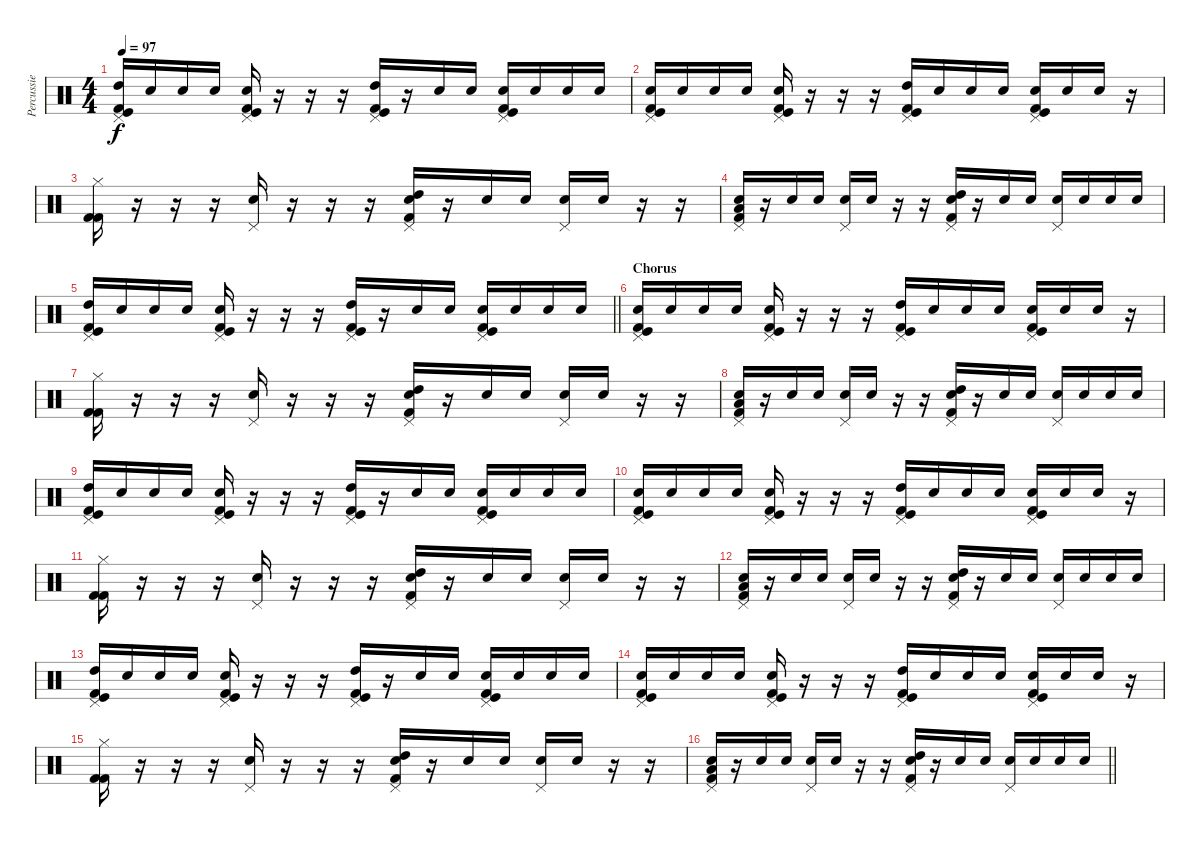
\track ("Percussie" "Percussie") {instrument percussion}
\staff {score}
\articulation defaults
\ts (4 4)
\tempo 97
\clef neutral
\ks c
("Pedal Hi-Hat (hit)" "High Tom (hit)" "Kick (hit)" "Kick (hit) 2").16{dy f} "Hand Clap (hit)".16 "Hand Clap (hit)".16 "Hand Clap (hit)".16 ("Pedal Hi-Hat (hit)" "Electric Snare (hit)" "Kick (hit)" "Kick (hit) 2").16 r.16 r.16 r.16 ("Pedal Hi-Hat (hit)" "High Tom (hit)" "Kick (hit)" "Kick (hit) 2").16 r.16 "Hand Clap (hit)".16 "Hand Clap (hit)".16 ("Pedal Hi-Hat (hit)" "Electric Snare (hit)" "Kick (hit)" "Kick (hit) 2").16 "Hand Clap (hit)".16 "Hand Clap (hit)".16 "Hand Clap (hit)".16 |
("Pedal Hi-Hat (hit)" "Electric Snare (hit)" "Kick (hit)" "Kick (hit) 2").16 "Hand Clap (hit)".16 "Hand Clap (hit)".16 "Hand Clap (hit)".16 ("Pedal Hi-Hat (hit)" "Electric Snare (hit)" "Kick (hit)" "Kick (hit) 2").16 r.16 r.16 r.16 ("Pedal Hi-Hat (hit)" "High Tom (hit)" "Kick (hit)" "Kick (hit) 2").16 "Hand Clap (hit)".16 "Hand Clap (hit)".16 "Hand Clap (hit)".16 ("Pedal Hi-Hat (hit)" "Electric Snare (hit)" "Kick (hit)" "Kick (hit) 2").16 "Hand Clap (hit)".16 "Electric Snare (hit)".16 r.16 |
("Hi-Hat (closed)" "Kick (hit) 2" "Kick (hit) 2").16 r.16 r.16 r.16 ("Pedal Hi-Hat (hit)" "Hand Clap (hit)").16 r.16 r.16 r.16 ("Pedal Hi-Hat (hit)" "Electric Snare (hit)" "High Tom (hit)" "Kick (hit) 2").16 r.16 "Hand Clap (hit)".16 "Hand Clap (hit)".16 ("Pedal Hi-Hat (hit)" "Hand Clap (hit)").16 "Hand Clap (hit)".16 r.16 r.16 |
("Pedal Hi-Hat (hit)" "Electric Snare (hit)" "Low Tom (hit)" "Kick (hit) 2").16 r.16 "Hand Clap (hit)".16 "Hand Clap (hit)".16 ("Pedal Hi-Hat (hit)" "Hand Clap (hit)").16 "Hand Clap (hit)".16 r.16 r.16 ("Pedal Hi-Hat (hit)" "Electric Snare (hit)" "High Tom (hit)" "Kick (hit) 2").16 r.16 "Hand Clap (hit)".16 "Hand Clap (hit)".16 ("Pedal Hi-Hat (hit)" "Hand Clap (hit)").16 "Hand Clap (hit)".16 "Hand Clap (hit)".16 "Hand Clap (hit)".16 |
\barLineRight lightlight
("Pedal Hi-Hat (hit)" "High Tom (hit)" "Kick (hit)" "Kick (hit) 2").16 "Hand Clap (hit)".16 "Hand Clap (hit)".16 "Hand Clap (hit)".16 ("Pedal Hi-Hat (hit)" "Electric Snare (hit)" "Kick (hit)" "Kick (hit) 2").16 r.16 r.16 r.16 ("Pedal Hi-Hat (hit)" "High Tom (hit)" "Kick (hit)" "Kick (hit) 2").16 r.16 "Hand Clap (hit)".16 "Hand Clap (hit)".16 ("Pedal Hi-Hat (hit)" "Electric Snare (hit)" "Kick (hit)" "Kick (hit) 2").16 "Hand Clap (hit)".16 "Hand Clap (hit)".16 "Hand Clap (hit)".16 |
\section ("" "Chorus")
("Pedal Hi-Hat (hit)" "Electric Snare (hit)" "Kick (hit)" "Kick (hit) 2").16 "Hand Clap (hit)".16 "Hand Clap (hit)".16 "Hand Clap (hit)".16 ("Pedal Hi-Hat (hit)" "Electric Snare (hit)" "Kick (hit)" "Kick (hit) 2").16 r.16 r.16 r.16 ("Pedal Hi-Hat (hit)" "High Tom (hit)" "Kick (hit)" "Kick (hit) 2").16 "Hand Clap (hit)".16 "Hand Clap (hit)".16 "Hand Clap (hit)".16 ("Pedal Hi-Hat (hit)" "Electric Snare (hit)" "Kick (hit)" "Kick (hit) 2").16 "Hand Clap (hit)".16 "Electric Snare (hit)".16 r.16 |
("Hi-Hat (closed)" "Kick (hit) 2" "Kick (hit) 2").16 r.16 r.16 r.16 ("Pedal Hi-Hat (hit)" "Hand Clap (hit)").16 r.16 r.16 r.16 ("Pedal Hi-Hat (hit)" "Electric Snare (hit)" "High Tom (hit)" "Kick (hit) 2").16 r.16 "Hand Clap (hit)".16 "Hand Clap (hit)".16 ("Pedal Hi-Hat (hit)" "Hand Clap (hit)").16 "Hand Clap (hit)".16 r.16 r.16 |
("Pedal Hi-Hat (hit)" "Electric Snare (hit)" "Low Tom (hit)" "Kick (hit) 2").16 r.16 "Hand Clap (hit)".16 "Hand Clap (hit)".16 ("Pedal Hi-Hat (hit)" "Hand Clap (hit)").16 "Hand Clap (hit)".16 r.16 r.16 ("Pedal Hi-Hat (hit)" "Electric Snare (hit)" "High Tom (hit)" "Kick (hit) 2").16 r.16 "Hand Clap (hit)".16 "Hand Clap (hit)".16 ("Pedal Hi-Hat (hit)" "Hand Clap (hit)").16 "Hand Clap (hit)".16 "Hand Clap (hit)".16 "Hand Clap (hit)".16 |
("Pedal Hi-Hat (hit)" "High Tom (hit)" "Kick (hit)" "Kick (hit) 2").16 "Hand Clap (hit)".16 "Hand Clap (hit)".16 "Hand Clap (hit)".16 ("Pedal Hi-Hat (hit)" "Electric Snare (hit)" "Kick (hit)" "Kick (hit) 2").16 r.16 r.16 r.16 ("Pedal Hi-Hat (hit)" "High Tom (hit)" "Kick (hit)" "Kick (hit) 2").16 r.16 "Hand Clap (hit)".16 "Hand Clap (hit)".16 ("Pedal Hi-Hat (hit)" "Electric Snare (hit)" "Kick (hit)" "Kick (hit) 2").16 "Hand Clap (hit)".16 "Hand Clap (hit)".16 "Hand Clap (hit)".16 |
("Pedal Hi-Hat (hit)" "Electric Snare (hit)" "Kick (hit)" "Kick (hit) 2").16 "Hand Clap (hit)".16 "Hand Clap (hit)".16 "Hand Clap (hit)".16 ("Pedal Hi-Hat (hit)" "Electric Snare (hit)" "Kick (hit)" "Kick (hit) 2").16 r.16 r.16 r.16 ("Pedal Hi-Hat (hit)" "High Tom (hit)" "Kick (hit)" "Kick (hit) 2").16 "Hand Clap (hit)".16 "Hand Clap (hit)".16 "Hand Clap (hit)".16 ("Pedal Hi-Hat (hit)" "Electric Snare (hit)" "Kick (hit)" "Kick (hit) 2").16 "Hand Clap (hit)".16 "Electric Snare (hit)".16 r.16 |
("Hi-Hat (closed)" "Kick (hit) 2" "Kick (hit) 2").16 r.16 r.16 r.16 ("Pedal Hi-Hat (hit)" "Hand Clap (hit)").16 r.16 r.16 r.16 ("Pedal Hi-Hat (hit)" "Electric Snare (hit)" "High Tom (hit)" "Kick (hit) 2").16 r.16 "Hand Clap (hit)".16 "Hand Clap (hit)".16 ("Pedal Hi-Hat (hit)" "Hand Clap (hit)").16 "Hand Clap (hit)".16 r.16 r.16 |
("Pedal Hi-Hat (hit)" "Electric Snare (hit)" "Low Tom (hit)" "Kick (hit) 2").16 r.16 "Hand Clap (hit)".16 "Hand Clap (hit)".16 ("Pedal Hi-Hat (hit)" "Hand Clap (hit)").16 "Hand Clap (hit)".16 r.16 r.16 ("Pedal Hi-Hat (hit)" "Electric Snare (hit)" "High Tom (hit)" "Kick (hit) 2").16 r.16 "Hand Clap (hit)".16 "Hand Clap (hit)".16 ("Pedal Hi-Hat (hit)" "Hand Clap (hit)").16 "Hand Clap (hit)".16 "Hand Clap (hit)".16 "Hand Clap (hit)".16 |
("Pedal Hi-Hat (hit)" "High Tom (hit)" "Kick (hit)" "Kick (hit) 2").16 "Hand Clap (hit)".16 "Hand Clap (hit)".16 "Hand Clap (hit)".16 ("Pedal Hi-Hat (hit)" "Electric Snare (hit)" "Kick (hit)" "Kick (hit) 2").16 r.16 r.16 r.16 ("Pedal Hi-Hat (hit)" "High Tom (hit)" "Kick (hit)" "Kick (hit) 2").16 r.16 "Hand Clap (hit)".16 "Hand Clap (hit)".16 ("Pedal Hi-Hat (hit)" "Electric Snare (hit)" "Kick (hit)" "Kick (hit) 2").16 "Hand Clap (hit)".16 "Hand Clap (hit)".16 "Hand Clap (hit)".16 |
("Pedal Hi-Hat (hit)" "Electric Snare (hit)" "Kick (hit)" "Kick (hit) 2").16 "Hand Clap (hit)".16 "Hand Clap (hit)".16 "Hand Clap (hit)".16 ("Pedal Hi-Hat (hit)" "Electric Snare (hit)" "Kick (hit)" "Kick (hit) 2").16 r.16 r.16 r.16 ("Pedal Hi-Hat (hit)" "High Tom (hit)" "Kick (hit)" "Kick (hit) 2").16 "Hand Clap (hit)".16 "Hand Clap (hit)".16 "Hand Clap (hit)".16 ("Pedal Hi-Hat (hit)" "Electric Snare (hit)" "Kick (hit)" "Kick (hit) 2").16 "Hand Clap (hit)".16 "Electric Snare (hit)".16 r.16 |
("Hi-Hat (closed)" "Kick (hit) 2" "Kick (hit) 2").16 r.16 r.16 r.16 ("Pedal Hi-Hat (hit)" "Hand Clap (hit)").16 r.16 r.16 r.16 ("Pedal Hi-Hat (hit)" "Electric Snare (hit)" "High Tom (hit)" "Kick (hit) 2").16 r.16 "Hand Clap (hit)".16 "Hand Clap (hit)".16 ("Pedal Hi-Hat (hit)" "Hand Clap (hit)").16 "Hand Clap (hit)".16 r.16 r.16 |
\barLineRight lightlight
("Pedal Hi-Hat (hit)" "Electric Snare (hit)" "Low Tom (hit)" "Kick (hit) 2").16 r.16 "Hand Clap (hit)".16 "Hand Clap (hit)".16 ("Pedal Hi-Hat (hit)" "Hand Clap (hit)").16 "Hand Clap (hit)".16 r.16 r.16 ("Pedal Hi-Hat (hit)" "Electric Snare (hit)" "High Tom (hit)" "Kick (hit) 2").16 r.16 "Hand Clap (hit)".16 "Hand Clap (hit)".16 ("Pedal Hi-Hat (hit)" "Hand Clap (hit)").16 "Hand Clap (hit)".16 "Hand Clap (hit)".16 "Hand Clap (hit)".16
